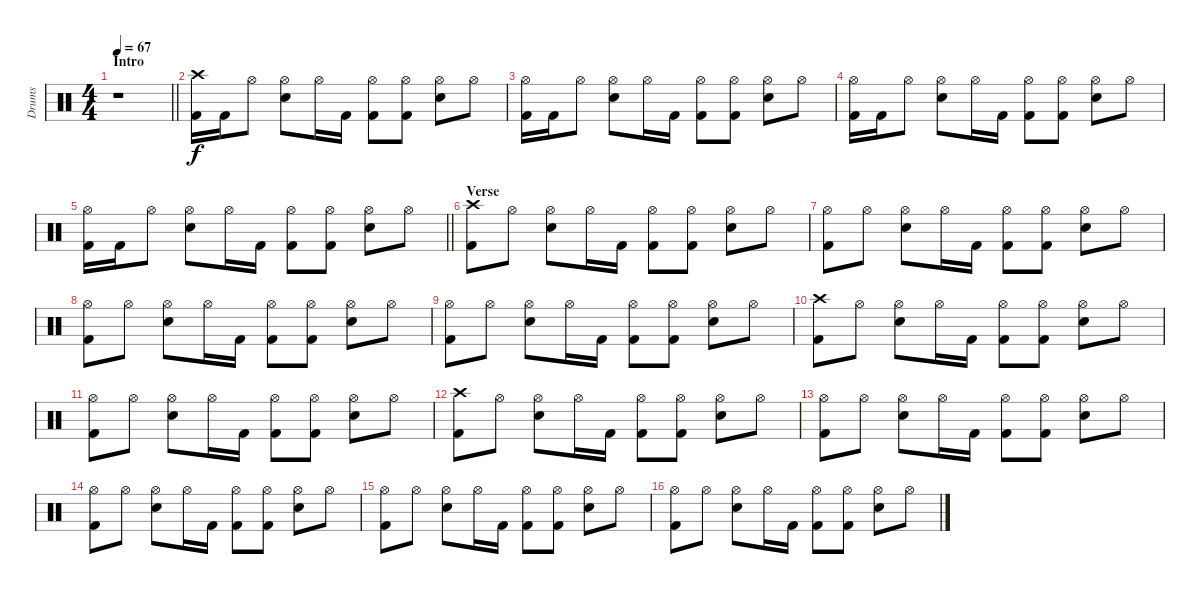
\track ("Drums" "Drums") {instrument percussion}
\staff {score}
\articulation defaults
\ts (4 4)
\section ("" "Intro")
\tempo 67
\clef neutral
\barLineRight lightlight
\ks c
r.1{dy f} |
("Crash high (hit)" "Kick (hit) 2").16 "Kick (hit) 2".16 "Hi-Hat (open)".8 ("Hi-Hat (open)" "Snare (hit) 2").8 "Hi-Hat (open)".16 "Kick (hit) 2".16 ("Hi-Hat (open)" "Kick (hit) 2").8 ("Kick (hit) 2" "Hi-Hat (open)").8 ("Hi-Hat (open)" "Snare (hit) 2").8 "Hi-Hat (open)".8 |
("Hi-Hat (open)" "Kick (hit) 2").16 "Kick (hit) 2".16 "Hi-Hat (open)".8 ("Hi-Hat (open)" "Snare (hit) 2").8 "Hi-Hat (open)".16 "Kick (hit) 2".16 ("Hi-Hat (open)" "Kick (hit) 2").8 ("Kick (hit) 2" "Hi-Hat (open)").8 ("Hi-Hat (open)" "Snare (hit) 2").8 "Hi-Hat (open)".8 |
("Hi-Hat (open)" "Kick (hit) 2").16 "Kick (hit) 2".16 "Hi-Hat (open)".8 ("Hi-Hat (open)" "Snare (hit) 2").8 "Hi-Hat (open)".16 "Kick (hit) 2".16 ("Hi-Hat (open)" "Kick (hit) 2").8 ("Kick (hit) 2" "Hi-Hat (open)").8 ("Hi-Hat (open)" "Snare (hit) 2").8 "Hi-Hat (open)".8 |
\barLineRight lightlight
("Hi-Hat (open)" "Kick (hit) 2").16 "Kick (hit) 2".16 "Hi-Hat (open)".8 ("Hi-Hat (open)" "Snare (hit) 2").8 "Hi-Hat (open)".16 "Kick (hit) 2".16 ("Hi-Hat (open)" "Kick (hit) 2").8 ("Kick (hit) 2" "Hi-Hat (open)").8 ("Hi-Hat (open)" "Snare (hit) 2").8 "Hi-Hat (open)".8 |
\section ("" "Verse")
("Crash high (hit)" "Kick (hit) 2").8 "Hi-Hat (open)".8 ("Hi-Hat (open)" "Snare (hit) 2").8 "Hi-Hat (open)".16 "Kick (hit) 2".16 ("Hi-Hat (open)" "Kick (hit) 2").8 ("Kick (hit) 2" "Hi-Hat (open)").8 ("Hi-Hat (open)" "Snare (hit) 2").8 "Hi-Hat (open)".8 |
("Hi-Hat (open)" "Kick (hit) 2").8 "Hi-Hat (open)".8 ("Hi-Hat (open)" "Snare (hit) 2").8 "Hi-Hat (open)".16 "Kick (hit) 2".16 ("Hi-Hat (open)" "Kick (hit) 2").8 ("Kick (hit) 2" "Hi-Hat (open)").8 ("Hi-Hat (open)" "Snare (hit) 2").8 "Hi-Hat (open)".8 |
("Hi-Hat (open)" "Kick (hit) 2").8 "Hi-Hat (open)".8 ("Hi-Hat (open)" "Snare (hit) 2").8 "Hi-Hat (open)".16 "Kick (hit) 2".16 ("Hi-Hat (open)" "Kick (hit) 2").8 ("Kick (hit) 2" "Hi-Hat (open)").8 ("Hi-Hat (open)" "Snare (hit) 2").8 "Hi-Hat (open)".8 |
("Hi-Hat (open)" "Kick (hit) 2").8 "Hi-Hat (open)".8 ("Hi-Hat (open)" "Snare (hit) 2").8 "Hi-Hat (open)".16 "Kick (hit) 2".16 ("Hi-Hat (open)" "Kick (hit) 2").8 ("Kick (hit) 2" "Hi-Hat (open)").8 ("Hi-Hat (open)" "Snare (hit) 2").8 "Hi-Hat (open)".8 |
("Crash high (hit)" "Kick (hit) 2").8 "Hi-Hat (open)".8 ("Hi-Hat (open)" "Snare (hit) 2").8 "Hi-Hat (open)".16 "Kick (hit) 2".16 ("Hi-Hat (open)" "Kick (hit) 2").8 ("Kick (hit) 2" "Hi-Hat (open)").8 ("Hi-Hat (open)" "Snare (hit) 2").8 "Hi-Hat (open)".8 |
("Hi-Hat (open)" "Kick (hit) 2").8 "Hi-Hat (open)".8 ("Hi-Hat (open)" "Snare (hit) 2").8 "Hi-Hat (open)".16 "Kick (hit) 2".16 ("Hi-Hat (open)" "Kick (hit) 2").8 ("Kick (hit) 2" "Hi-Hat (open)").8 ("Hi-Hat (open)" "Snare (hit) 2").8 "Hi-Hat (open)".8 |
("Crash high (hit)" "Kick (hit) 2").8 "Hi-Hat (open)".8 ("Hi-Hat (open)" "Snare (hit) 2").8 "Hi-Hat (open)".16 "Kick (hit) 2".16 ("Hi-Hat (open)" "Kick (hit) 2").8 ("Kick (hit) 2" "Hi-Hat (open)").8 ("Hi-Hat (open)" "Snare (hit) 2").8 "Hi-Hat (open)".8 |
("Hi-Hat (open)" "Kick (hit) 2").8 "Hi-Hat (open)".8 ("Hi-Hat (open)" "Snare (hit) 2").8 "Hi-Hat (open)".16 "Kick (hit) 2".16 ("Hi-Hat (open)" "Kick (hit) 2").8 ("Kick (hit) 2" "Hi-Hat (open)").8 ("Hi-Hat (open)" "Snare (hit) 2").8 "Hi-Hat (open)".8 |
("Hi-Hat (open)" "Kick (hit) 2").8 "Hi-Hat (open)".8 ("Hi-Hat (open)" "Snare (hit) 2").8 "Hi-Hat (open)".16 "Kick (hit) 2".16 ("Hi-Hat (open)" "Kick (hit) 2").8 ("Kick (hit) 2" "Hi-Hat (open)").8 ("Hi-Hat (open)" "Snare (hit) 2").8 "Hi-Hat (open)".8 |
("Hi-Hat (open)" "Kick (hit) 2").8 "Hi-Hat (open)".8 ("Hi-Hat (open)" "Snare (hit) 2").8 "Hi-Hat (open)".16 "Kick (hit) 2".16 ("Hi-Hat (open)" "Kick (hit) 2").8 ("Kick (hit) 2" "Hi-Hat (open)").8 ("Hi-Hat (open)" "Snare (hit) 2").8 "Hi-Hat (open)".8 |
("Hi-Hat (open)" "Kick (hit) 2").8 "Hi-Hat (open)".8 ("Hi-Hat (open)" "Snare (hit) 2").8 "Hi-Hat (open)".16 "Kick (hit) 2".16 ("Hi-Hat (open)" "Kick (hit) 2").8 ("Kick (hit) 2" "Hi-Hat (open)").8 ("Hi-Hat (open)" "Snare (hit) 2").8 "Hi-Hat (open)".8
